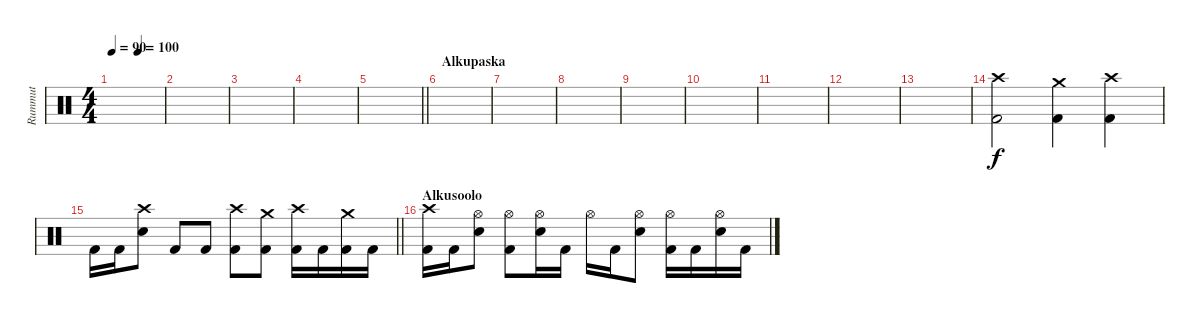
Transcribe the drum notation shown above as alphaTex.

\track ("Rummut" "Rummut") {instrument percussion}
\staff {score}
\articulation defaults
\ts (4 4)
\tempo 90
\tempo 70
\tempo (100 0.5)
\tempo 90
\clef neutral
\ks c
|
|
|
|
\barLineRight lightlight
|
\section ("" "Alkupaska")
|
|
|
|
|
|
|
|
("Crash high (hit)" "Kick (hit) 2").2 ("Crash medium (hit)" "Kick (hit) 2").4 ("Crash high (hit)" "Kick (hit) 2").4 |
\barLineRight lightlight "Kick (hit) 2".16 "Kick (hit) 2".16
("Crash high (hit)" "Snare (hit) 2").8 "Kick (hit) 2".8 "Kick (hit) 2".8 ("Crash high (hit)" "Kick (hit) 2").8 ("Crash medium (hit)" "Kick (hit) 2").8 ("Crash high (hit)" "Kick (hit) 2").16 "Kick (hit) 2".16 ("Crash medium (hit)" "Kick (hit) 2").16 "Kick (hit) 2".16 |
\section ("" "Alkusoolo")
("Crash high (hit)" "Kick (hit) 2").16 "Kick (hit) 2".16 ("Hi-Hat (open)" "Snare (hit) 2").8 ("Hi-Hat (open)" "Kick (hit) 2").8 ("Hi-Hat (open)" "Snare (hit) 2").16 "Kick (hit) 2".16 "Hi-Hat (open)".16 "Kick (hit) 2".16 ("Hi-Hat (open)" "Snare (hit) 2").8 ("Hi-Hat (open)" "Kick (hit) 2").16 "Kick (hit) 2".16 ("Hi-Hat (open)" "Snare (hit) 2").16 "Kick (hit) 2".16
